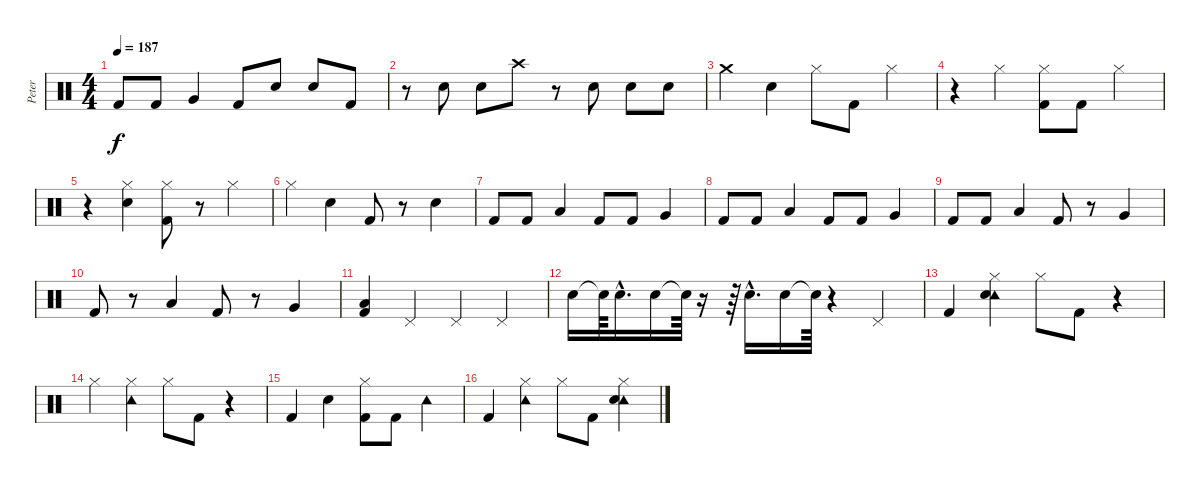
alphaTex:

\track ("Peter" "Peter") {instrument percussion}
\staff {score}
\articulation defaults
\ts (4 4)
\tempo 187
\clef neutral
\ks c "Kick (hit) 2".8{dy f} "Kick (hit) 2".8 "Very Low Tom (hit)".4 "Kick (hit) 2".8 "Electric Snare (hit)".8 "Electric Snare (hit)".8 "Kick (hit) 2".8
|
r.8 "Electric Snare (hit)".8 "Electric Snare (hit)".8 "Crash high (hit)".8 r.8 "Electric Snare (hit)".8 "Electric Snare (hit)".8 "Electric Snare (hit)".8 |
"Crash medium (hit)".4 "Electric Snare (hit)".4 "Hi-Hat (closed)".8 "Kick (hit) 2".8 "Hi-Hat (closed)".4 |
r.4 "Hi-Hat (closed)".4 ("Hi-Hat (closed)" "Kick (hit) 2").8 "Kick (hit) 2".8 "Hi-Hat (closed)".4 |
r.4 ("Hi-Hat (closed)" "Electric Snare (hit)").4 ("Hi-Hat (closed)" "Kick (hit) 2").8 r.8 "Hi-Hat (closed)".4 |
"Hi-Hat (closed)".4 "Electric Snare (hit)".4 "Kick (hit) 2".8 r.8 "Electric Snare (hit)".4 |
"Kick (hit) 2".8 "Kick (hit) 2".8 "Low Tom (hit)".4 "Kick (hit) 2".8 "Kick (hit) 2".8 "Very Low Tom (hit)".4 |
"Kick (hit) 2".8 "Kick (hit) 2".8 "Low Tom (hit)".4 "Kick (hit) 2".8 "Kick (hit) 2".8 "Very Low Tom (hit)".4 |
"Kick (hit) 2".8 "Kick (hit) 2".8 "Low Tom (hit)".4 "Kick (hit) 2".8 r.8 "Very Low Tom (hit)".4 |
"Kick (hit) 2".8 r.8 "Low Tom (hit)".4 "Kick (hit) 2".8 r.8 "Very Low Tom (hit)".4 |
("Kick (hit) 2" "Low Tom (hit)").4 "Pedal Hi-Hat (hit)".4 "Pedal Hi-Hat (hit)".4 "Pedal Hi-Hat (hit)".4 |
"Electric Snare (hit)".16 "Snare (hit)"{t}.64 "Electric Snare (hit)"{hac}.16{d} "Electric Snare (hit)".16 "Snare (hit)"{t}.64 r.16 r.64 "Electric Snare (hit)"{hac}.16{d} "Electric Snare (hit)".16 "Snare (hit)"{t}.64 r.4 "Pedal Hi-Hat (hit)".4 |
"Kick (hit) 2".4 ("Hi-Hat (closed)" "Tambourine (hit)" "Electric Snare (hit)").4 "Hi-Hat (closed)".8 "Kick (hit) 2".8 r.4 |
"Hi-Hat (closed)".4 ("Hi-Hat (closed)" "Tambourine (hit)").4 "Hi-Hat (closed)".8 "Kick (hit) 2".8 r.4 |
"Kick (hit) 2".4 "Electric Snare (hit)".4 ("Hi-Hat (closed)" "Kick (hit) 2").8 "Kick (hit) 2".8 "Tambourine (hit)".4 |
"Kick (hit) 2".4 ("Hi-Hat (closed)" "Tambourine (hit)").4 "Hi-Hat (closed)".8 "Kick (hit) 2".8 ("Hi-Hat (closed)" "Tambourine (hit)" "Electric Snare (hit)").4
